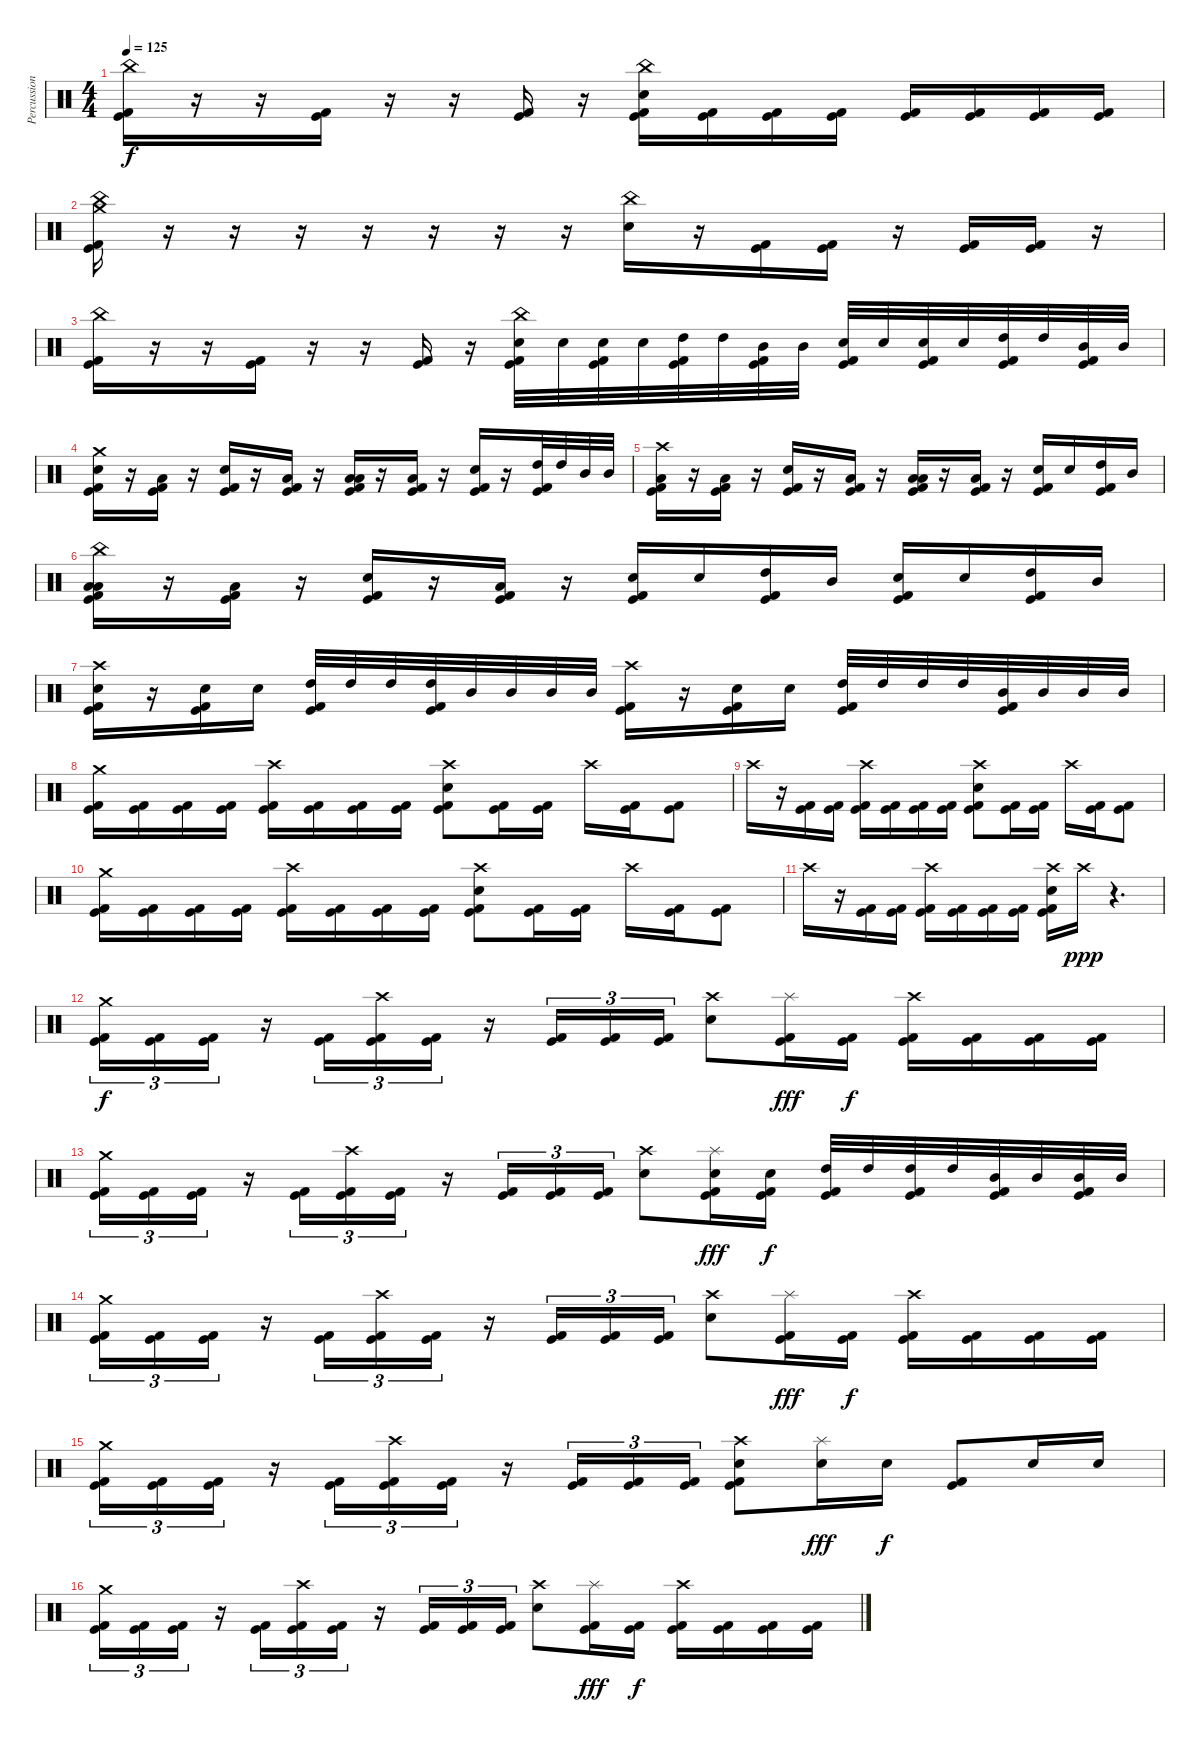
\track ("Percussion" "Percussion") {instrument percussion}
\staff {score}
\articulation defaults
\ts (4 4)
\tempo 125
\clef neutral
\ks c
("China (hit)" "Kick (hit) 2" "Kick (hit)").16{dy f} r.16 r.16 ("Kick (hit) 2" "Kick (hit)").16 r.16 r.16 ("Kick (hit) 2" "Kick (hit)").16 r.16 ("China (hit)" "Snare (hit) 2" "Kick (hit) 2" "Kick (hit)").16 ("Kick (hit) 2" "Kick (hit)").16 ("Kick (hit) 2" "Kick (hit)").16 ("Kick (hit) 2" "Kick (hit)").16 ("Kick (hit) 2" "Kick (hit)").16 ("Kick (hit) 2" "Kick (hit)").16 ("Kick (hit) 2" "Kick (hit)").16 ("Kick (hit) 2" "Kick (hit)").16 |
("Crash medium (hit)" "China (hit)" "Kick (hit) 2" "Kick (hit)").16 r.16 r.16 r.16 r.16 r.16 r.16 r.16 ("China (hit)" "Snare (hit) 2").16 r.16 ("Kick (hit) 2" "Kick (hit)").16 ("Kick (hit) 2" "Kick (hit)").16 r.16 ("Kick (hit) 2" "Kick (hit)").16 ("Kick (hit) 2" "Kick (hit)").16 r.16 |
("China (hit)" "Kick (hit) 2" "Kick (hit)").16 r.16 r.16 ("Kick (hit) 2" "Kick (hit)").16 r.16 r.16 ("Kick (hit) 2" "Kick (hit)").16 r.16 ("China (hit)" "Snare (hit) 2" "Kick (hit) 2" "Kick (hit)").32 "Snare (hit) 2".32 ("Snare (hit) 2" "Kick (hit) 2" "Kick (hit)").32 "Snare (hit) 2".32 ("High Tom (hit)" "Kick (hit) 2" "Kick (hit)").32 "High Tom (hit)".32 ("Mid Tom (hit)" "Kick (hit) 2" "Kick (hit)").32 "Mid Tom (hit)".32 ("Snare (hit) 2" "Kick (hit) 2" "Kick (hit)").32 "Snare (hit) 2".32 ("Snare (hit) 2" "Kick (hit) 2" "Kick (hit)").32 "Snare (hit) 2".32 ("High Tom (hit)" "Kick (hit) 2" "Kick (hit)").32 "High Tom (hit)".32 ("Mid Tom (hit)" "Kick (hit) 2" "Kick (hit)").32 "Mid Tom (hit)".32 |
("Crash medium (hit)" "Snare (hit) 2" "Kick (hit)" "Kick (hit) 2").16 r.16 ("Low Tom (hit)" "Kick (hit) 2" "Kick (hit)").16 r.16 ("Snare (hit) 2" "Kick (hit)" "Kick (hit) 2").16 r.16 ("Low Floor Tom (hit)" "Kick (hit)" "Kick (hit) 2").16 r.16 ("Low Tom (hit)" "Low Floor Tom (hit)" "Kick (hit)" "Kick (hit) 2").16 r.16 ("Low Floor Tom (hit)" "Kick (hit)" "Kick (hit) 2").16 r.16 ("Snare (hit) 2" "Kick (hit)" "Kick (hit) 2").16 r.16 ("High Tom (hit)" "Kick (hit)" "Kick (hit) 2").32 "High Tom (hit)".32 "Mid Tom (hit)".32 "Mid Tom (hit)".32 |
("Crash high (hit)" "Low Tom (hit)" "Kick (hit) 2" "Kick (hit)").16 r.16 ("Low Floor Tom (hit)" "Kick (hit) 2" "Kick (hit)").16 r.16 ("Snare (hit) 2" "Kick (hit) 2" "Kick (hit)").16 r.16 ("Low Floor Tom (hit)" "Kick (hit) 2" "Kick (hit)").16 r.16 ("Low Tom (hit)" "Low Floor Tom (hit)" "Kick (hit) 2" "Kick (hit)").16 r.16 ("Low Floor Tom (hit)" "Kick (hit) 2" "Kick (hit)").16 r.16 ("Snare (hit) 2" "Kick (hit) 2" "Kick (hit)").16 "Snare (hit) 2".16 ("High Tom (hit)" "Kick (hit) 2" "Kick (hit)").16 "Mid Tom (hit)".16 |
("China (hit)" "Low Tom (hit)" "Low Floor Tom (hit)" "Kick (hit)" "Kick (hit) 2").16 r.16 ("Low Floor Tom (hit)" "Kick (hit)" "Kick (hit) 2").16 r.16 ("Snare (hit) 2" "Kick (hit)" "Kick (hit) 2").16 r.16 ("Low Floor Tom (hit)" "Kick (hit)" "Kick (hit) 2").16 r.16 ("Snare (hit) 2" "Kick (hit)" "Kick (hit) 2").16 "Snare (hit) 2".16 ("High Tom (hit)" "Kick (hit)" "Kick (hit) 2").16 "Mid Tom (hit)".16 ("Snare (hit) 2" "Kick (hit)" "Kick (hit) 2").16 "Snare (hit) 2".16 ("High Tom (hit)" "Kick (hit)" "Kick (hit) 2").16 "Mid Tom (hit)".16 |
("Crash high (hit)" "Snare (hit) 2" "Kick (hit)" "Kick (hit) 2").16 r.16 ("Snare (hit) 2" "Kick (hit)" "Kick (hit) 2").16 "Snare (hit) 2".16 ("High Tom (hit)" "Kick (hit)" "Kick (hit) 2").32 "High Tom (hit)".32 "High Tom (hit)".32 ("High Tom (hit)" "Kick (hit)" "Kick (hit) 2").32 "Mid Tom (hit)".32 "Mid Tom (hit)".32 "Mid Tom (hit)".32 "Mid Tom (hit)".32 ("Crash high (hit)" "Kick (hit)" "Kick (hit) 2").16 r.16 ("Snare (hit) 2" "Kick (hit)" "Kick (hit) 2").16 "Snare (hit) 2".16 ("High Tom (hit)" "Kick (hit)" "Kick (hit) 2").32 "High Tom (hit)".32 "High Tom (hit)".32 "High Tom (hit)".32 ("Mid Tom (hit)" "Kick (hit)" "Kick (hit) 2").32 "Mid Tom (hit)".32 "Mid Tom (hit)".32 "Mid Tom (hit)".32 |
("Crash medium (hit)" "Kick (hit)" "Kick (hit) 2").16 ("Kick (hit)" "Kick (hit) 2").16 ("Kick (hit)" "Kick (hit) 2").16 ("Kick (hit)" "Kick (hit) 2").16 ("Crash high (hit)" "Kick (hit)" "Kick (hit) 2").16 ("Kick (hit)" "Kick (hit) 2").16 ("Kick (hit)" "Kick (hit) 2").16 ("Kick (hit)" "Kick (hit) 2").16 ("Crash high (hit)" "Snare (hit) 2" "Kick (hit)" "Kick (hit) 2").8 ("Kick (hit)" "Kick (hit) 2").16 ("Kick (hit)" "Kick (hit) 2").16 "Crash high (hit)".16 ("Kick (hit)" "Kick (hit) 2").16 ("Kick (hit)" "Kick (hit) 2").8 |
"Crash high (hit)".16 r.16 ("Kick (hit)" "Kick (hit) 2").16 ("Kick (hit)" "Kick (hit) 2").16 ("Crash high (hit)" "Kick (hit)" "Kick (hit) 2").16 ("Kick (hit)" "Kick (hit) 2").16 ("Kick (hit)" "Kick (hit) 2").16 ("Kick (hit)" "Kick (hit) 2").16 ("Crash high (hit)" "Snare (hit) 2" "Kick (hit)" "Kick (hit) 2").8 ("Kick (hit)" "Kick (hit) 2").16 ("Kick (hit)" "Kick (hit) 2").16 "Crash high (hit)".16 ("Kick (hit)" "Kick (hit) 2").16 ("Kick (hit)" "Kick (hit) 2").8 |
("Crash medium (hit)" "Kick (hit)" "Kick (hit) 2").16 ("Kick (hit)" "Kick (hit) 2").16 ("Kick (hit)" "Kick (hit) 2").16 ("Kick (hit)" "Kick (hit) 2").16 ("Crash high (hit)" "Kick (hit)" "Kick (hit) 2").16 ("Kick (hit)" "Kick (hit) 2").16 ("Kick (hit)" "Kick (hit) 2").16 ("Kick (hit)" "Kick (hit) 2").16 ("Crash high (hit)" "Snare (hit) 2" "Kick (hit)" "Kick (hit) 2").8 ("Kick (hit)" "Kick (hit) 2").16 ("Kick (hit)" "Kick (hit) 2").16 "Crash high (hit)".16 ("Kick (hit)" "Kick (hit) 2").16 ("Kick (hit)" "Kick (hit) 2").8 |
"Crash high (hit)".16 r.16 ("Kick (hit)" "Kick (hit) 2").16 ("Kick (hit)" "Kick (hit) 2").16 ("Crash high (hit)" "Kick (hit)" "Kick (hit) 2").16 ("Kick (hit)" "Kick (hit) 2").16 ("Kick (hit)" "Kick (hit) 2").16 ("Kick (hit)" "Kick (hit) 2").16 ("Crash high (hit)" "Snare (hit) 2" "Kick (hit)" "Kick (hit) 2").16 "Crash high (hit)".16{dy ppp} r.4{d} |
("Crash medium (hit)" "Kick (hit)" "Kick (hit) 2").16{tu (3 2) dy f volume 16} ("Kick (hit)" "Kick (hit) 2").16{tu (3 2)} ("Kick (hit)" "Kick (hit) 2").16{tu (3 2)} r.16 ("Kick (hit)" "Kick (hit) 2").16{tu (3 2)} ("Crash high (hit)" "Kick (hit)" "Kick (hit) 2").16{tu (3 2)} ("Kick (hit)" "Kick (hit) 2").16{tu (3 2)} r.16 ("Kick (hit)" "Kick (hit) 2").16{tu (3 2)} ("Kick (hit)" "Kick (hit) 2").16{tu (3 2)} ("Kick (hit)" "Kick (hit) 2").16{tu (3 2)} ("Crash high (hit)" "Snare (hit) 2").8 ("Splash (hit)" "Kick (hit)" "Kick (hit) 2").16{dy fff} ("Kick (hit)" "Kick (hit) 2").16{dy f} ("Crash high (hit)" "Kick (hit)" "Kick (hit) 2").16 ("Kick (hit)" "Kick (hit) 2").16 ("Kick (hit)" "Kick (hit) 2").16 ("Kick (hit)" "Kick (hit) 2").16 |
("Crash medium (hit)" "Kick (hit)" "Kick (hit) 2").16{tu (3 2)} ("Kick (hit)" "Kick (hit) 2").16{tu (3 2)} ("Kick (hit)" "Kick (hit) 2").16{tu (3 2)} r.16 ("Kick (hit)" "Kick (hit) 2").16{tu (3 2)} ("Crash high (hit)" "Kick (hit)" "Kick (hit) 2").16{tu (3 2)} ("Kick (hit)" "Kick (hit) 2").16{tu (3 2)} r.16 ("Kick (hit)" "Kick (hit) 2").16{tu (3 2)} ("Kick (hit)" "Kick (hit) 2").16{tu (3 2)} ("Kick (hit)" "Kick (hit) 2").16{tu (3 2)} ("Crash high (hit)" "Snare (hit) 2").8 ("Splash (hit)" "Snare (hit) 2" "Kick (hit)" "Kick (hit) 2").16{dy fff} ("Snare (hit) 2" "Kick (hit)" "Kick (hit) 2").16{dy f} ("High Tom (hit)" "Kick (hit)" "Kick (hit) 2").32 "High Tom (hit)".32 ("High Tom (hit)" "Kick (hit)" "Kick (hit) 2").32 "High Tom (hit)".32 ("Mid Tom (hit)" "Kick (hit)" "Kick (hit) 2").32 "Mid Tom (hit)".32 ("Mid Tom (hit)" "Kick (hit)" "Kick (hit) 2").32 "Mid Tom (hit)".32 |
("Crash medium (hit)" "Kick (hit)" "Kick (hit) 2").16{tu (3 2)} ("Kick (hit)" "Kick (hit) 2").16{tu (3 2)} ("Kick (hit)" "Kick (hit) 2").16{tu (3 2)} r.16 ("Kick (hit)" "Kick (hit) 2").16{tu (3 2)} ("Crash high (hit)" "Kick (hit)" "Kick (hit) 2").16{tu (3 2)} ("Kick (hit)" "Kick (hit) 2").16{tu (3 2)} r.16 ("Kick (hit)" "Kick (hit) 2").16{tu (3 2)} ("Kick (hit)" "Kick (hit) 2").16{tu (3 2)} ("Kick (hit)" "Kick (hit) 2").16{tu (3 2)} ("Crash high (hit)" "Snare (hit) 2").8 ("Splash (hit)" "Kick (hit)" "Kick (hit) 2").16{dy fff} ("Kick (hit)" "Kick (hit) 2").16{dy f} ("Crash high (hit)" "Kick (hit)" "Kick (hit) 2").16 ("Kick (hit)" "Kick (hit) 2").16 ("Kick (hit)" "Kick (hit) 2").16 ("Kick (hit)" "Kick (hit) 2").16 |
("Crash medium (hit)" "Kick (hit)" "Kick (hit) 2").16{tu (3 2)} ("Kick (hit)" "Kick (hit) 2").16{tu (3 2)} ("Kick (hit)" "Kick (hit) 2").16{tu (3 2)} r.16 ("Kick (hit)" "Kick (hit) 2").16{tu (3 2)} ("Crash high (hit)" "Kick (hit)" "Kick (hit) 2").16{tu (3 2)} ("Kick (hit)" "Kick (hit) 2").16{tu (3 2)} r.16 ("Kick (hit)" "Kick (hit) 2").16{tu (3 2)} ("Kick (hit)" "Kick (hit) 2").16{tu (3 2)} ("Kick (hit)" "Kick (hit) 2").16{tu (3 2)} ("Crash high (hit)" "Snare (hit) 2" "Kick (hit)" "Kick (hit) 2").8 ("Splash (hit)" "Snare (hit) 2").16{dy fff} "Snare (hit) 2".16{dy f} ("Kick (hit)" "Kick (hit) 2").8 "Snare (hit) 2".16 "Snare (hit) 2".16 |
("Crash medium (hit)" "Kick (hit)" "Kick (hit) 2").16{tu (3 2)} ("Kick (hit)" "Kick (hit) 2").16{tu (3 2)} ("Kick (hit)" "Kick (hit) 2").16{tu (3 2)} r.16 ("Kick (hit)" "Kick (hit) 2").16{tu (3 2)} ("Crash high (hit)" "Kick (hit)" "Kick (hit) 2").16{tu (3 2)} ("Kick (hit)" "Kick (hit) 2").16{tu (3 2)} r.16 ("Kick (hit)" "Kick (hit) 2").16{tu (3 2)} ("Kick (hit)" "Kick (hit) 2").16{tu (3 2)} ("Kick (hit)" "Kick (hit) 2").16{tu (3 2)} ("Crash high (hit)" "Snare (hit) 2").8 ("Splash (hit)" "Kick (hit)" "Kick (hit) 2").16{dy fff} ("Kick (hit)" "Kick (hit) 2").16{dy f} ("Crash high (hit)" "Kick (hit)" "Kick (hit) 2").16 ("Kick (hit)" "Kick (hit) 2").16 ("Kick (hit)" "Kick (hit) 2").16 ("Kick (hit)" "Kick (hit) 2").16
